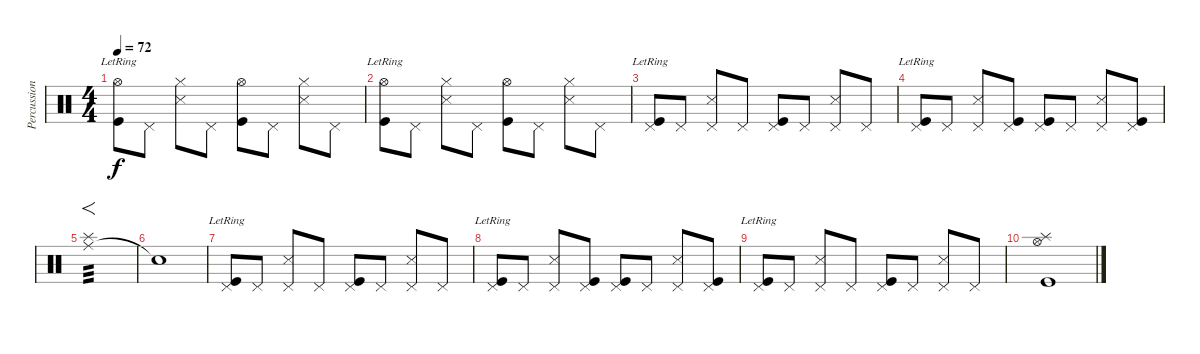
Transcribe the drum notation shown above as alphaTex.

\track ("Percussion" "Percussion") {instrument percussion}
\staff {score}
\articulation defaults
\ts (4 4)
\tempo 72
\clef neutral
\ks c
("Hi-Hat (open)"{lr} "Kick (hit)").8{dy f} "Pedal Hi-Hat (hit)".8 ("Hi-Hat (closed)" "Snare (side stick) 3").8 "Pedal Hi-Hat (hit)".8 ("Hi-Hat (open)" "Kick (hit)").8 "Pedal Hi-Hat (hit)".8 ("Hi-Hat (closed)" "Snare (side stick) 3").8 "Pedal Hi-Hat (hit)".8 |
("Hi-Hat (open)"{lr} "Kick (hit)").8 "Pedal Hi-Hat (hit)".8 ("Hi-Hat (closed)" "Snare (side stick) 3").8 "Pedal Hi-Hat (hit)".8 ("Hi-Hat (open)" "Kick (hit)").8 "Pedal Hi-Hat (hit)".8 ("Hi-Hat (closed)" "Snare (side stick) 3").8 "Pedal Hi-Hat (hit)".8 |
("Pedal Hi-Hat (hit)"{lr} "Kick (hit)").8 "Pedal Hi-Hat (hit)".8 ("Pedal Hi-Hat (hit)" "Snare (side stick) 3").8 "Pedal Hi-Hat (hit)".8 ("Pedal Hi-Hat (hit)" "Kick (hit)").8 "Pedal Hi-Hat (hit)".8 ("Pedal Hi-Hat (hit)" "Snare (side stick) 3").8 "Pedal Hi-Hat (hit)".8 |
("Pedal Hi-Hat (hit)"{lr} "Kick (hit)").8 "Pedal Hi-Hat (hit)".8 ("Pedal Hi-Hat (hit)" "Snare (side stick) 3").8 ("Pedal Hi-Hat (hit)" "Kick (hit)").8 ("Pedal Hi-Hat (hit)" "Kick (hit)").8 "Pedal Hi-Hat (hit)".8 ("Pedal Hi-Hat (hit)" "Snare (side stick) 3").8 ("Pedal Hi-Hat (hit)" "Kick (hit)").8 |
("Ride (middle)" "Splash (hit)").1{f tp 3} |
"Snare (hit)"{t}.1 |
("Pedal Hi-Hat (hit)"{lr} "Kick (hit)").8 "Pedal Hi-Hat (hit)".8 ("Pedal Hi-Hat (hit)" "Snare (side stick) 3").8 "Pedal Hi-Hat (hit)".8 ("Pedal Hi-Hat (hit)" "Kick (hit)").8 "Pedal Hi-Hat (hit)".8 ("Pedal Hi-Hat (hit)" "Snare (side stick) 3").8 "Pedal Hi-Hat (hit)".8 |
("Pedal Hi-Hat (hit)"{lr} "Kick (hit)").8 "Pedal Hi-Hat (hit)".8 ("Pedal Hi-Hat (hit)" "Snare (side stick) 3").8 ("Pedal Hi-Hat (hit)" "Kick (hit)").8 ("Pedal Hi-Hat (hit)" "Kick (hit)").8 "Pedal Hi-Hat (hit)".8 ("Pedal Hi-Hat (hit)" "Snare (side stick) 3").8 ("Pedal Hi-Hat (hit)" "Kick (hit)").8 |
("Pedal Hi-Hat (hit)"{lr} "Kick (hit)").8 "Pedal Hi-Hat (hit)".8 ("Pedal Hi-Hat (hit)" "Snare (side stick) 3").8 "Pedal Hi-Hat (hit)".8 ("Pedal Hi-Hat (hit)" "Kick (hit)").8 "Pedal Hi-Hat (hit)".8 ("Pedal Hi-Hat (hit)" "Snare (side stick) 3").8 "Pedal Hi-Hat (hit)".8 |
("Hi-Hat (open)" "Splash (hit)" "Kick (hit)").1
